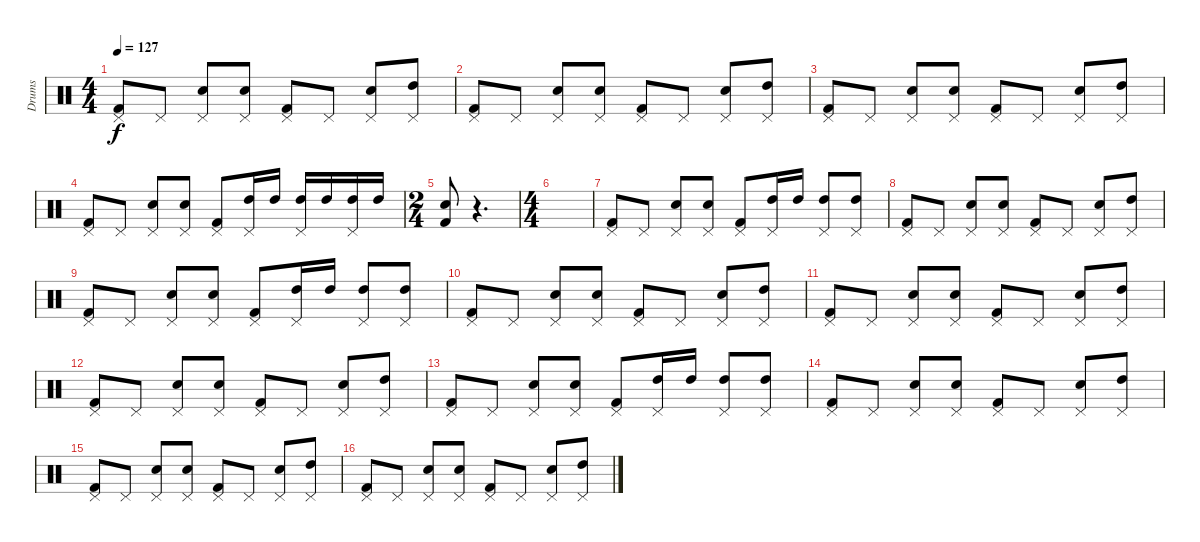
\track ("Drums" "Drums") {instrument percussion}
\staff {score}
\articulation defaults
\ts (4 4)
\tempo 127
\clef neutral
\ks c
("Pedal Hi-Hat (hit)" "Kick (hit) 2").8{dy f} "Pedal Hi-Hat (hit)".8 ("Pedal Hi-Hat (hit)" "Snare (hit) 2").8 ("Pedal Hi-Hat (hit)" "Snare (hit) 2").8 ("Pedal Hi-Hat (hit)" "Kick (hit) 2").8 "Pedal Hi-Hat (hit)".8 ("Pedal Hi-Hat (hit)" "Snare (hit) 2").8 ("Pedal Hi-Hat (hit)" "High Tom (hit)").8 |
("Pedal Hi-Hat (hit)" "Kick (hit) 2").8 "Pedal Hi-Hat (hit)".8 ("Pedal Hi-Hat (hit)" "Snare (hit) 2").8 ("Pedal Hi-Hat (hit)" "Snare (hit) 2").8 ("Pedal Hi-Hat (hit)" "Kick (hit) 2").8 "Pedal Hi-Hat (hit)".8 ("Pedal Hi-Hat (hit)" "Snare (hit) 2").8 ("Pedal Hi-Hat (hit)" "High Tom (hit)").8 |
("Pedal Hi-Hat (hit)" "Kick (hit) 2").8 "Pedal Hi-Hat (hit)".8 ("Pedal Hi-Hat (hit)" "Snare (hit) 2").8 ("Pedal Hi-Hat (hit)" "Snare (hit) 2").8 ("Pedal Hi-Hat (hit)" "Kick (hit) 2").8 "Pedal Hi-Hat (hit)".8 ("Pedal Hi-Hat (hit)" "Snare (hit) 2").8 ("Pedal Hi-Hat (hit)" "High Tom (hit)").8 |
("Pedal Hi-Hat (hit)" "Kick (hit) 2").8 "Pedal Hi-Hat (hit)".8 ("Pedal Hi-Hat (hit)" "Snare (hit) 2").8 ("Pedal Hi-Hat (hit)" "Snare (hit) 2").8 ("Pedal Hi-Hat (hit)" "Kick (hit) 2").8 ("Pedal Hi-Hat (hit)" "High Tom (hit)").16 "High Tom (hit)".16 ("Pedal Hi-Hat (hit)" "High Tom (hit)").16 "High Tom (hit)".16 ("Pedal Hi-Hat (hit)" "High Tom (hit)").16 "High Tom (hit)".16 |
\ts (2 4)
("Snare (hit) 2" "Kick (hit) 2").8 r.4{d} |
\ts (4 4)
|
("Pedal Hi-Hat (hit)" "Kick (hit) 2").8 "Pedal Hi-Hat (hit)".8 ("Pedal Hi-Hat (hit)" "Snare (hit) 2").8 ("Pedal Hi-Hat (hit)" "Snare (hit) 2").8 ("Pedal Hi-Hat (hit)" "Kick (hit) 2").8 ("Pedal Hi-Hat (hit)" "High Tom (hit)").16 "High Tom (hit)".16 ("Pedal Hi-Hat (hit)" "High Tom (hit)").8 ("Pedal Hi-Hat (hit)" "High Tom (hit)").8 |
("Pedal Hi-Hat (hit)" "Kick (hit) 2").8 "Pedal Hi-Hat (hit)".8 ("Pedal Hi-Hat (hit)" "Snare (hit) 2").8 ("Pedal Hi-Hat (hit)" "Snare (hit) 2").8 ("Pedal Hi-Hat (hit)" "Kick (hit) 2").8 "Pedal Hi-Hat (hit)".8 ("Pedal Hi-Hat (hit)" "Snare (hit) 2").8 ("Pedal Hi-Hat (hit)" "High Tom (hit)").8 |
("Pedal Hi-Hat (hit)" "Kick (hit) 2").8 "Pedal Hi-Hat (hit)".8 ("Pedal Hi-Hat (hit)" "Snare (hit) 2").8 ("Pedal Hi-Hat (hit)" "Snare (hit) 2").8 ("Pedal Hi-Hat (hit)" "Kick (hit) 2").8 ("Pedal Hi-Hat (hit)" "High Tom (hit)").16 "High Tom (hit)".16 ("Pedal Hi-Hat (hit)" "High Tom (hit)").8 ("Pedal Hi-Hat (hit)" "High Tom (hit)").8 |
("Pedal Hi-Hat (hit)" "Kick (hit) 2").8 "Pedal Hi-Hat (hit)".8 ("Pedal Hi-Hat (hit)" "Snare (hit) 2").8 ("Pedal Hi-Hat (hit)" "Snare (hit) 2").8 ("Pedal Hi-Hat (hit)" "Kick (hit) 2").8 "Pedal Hi-Hat (hit)".8 ("Pedal Hi-Hat (hit)" "Snare (hit) 2").8 ("Pedal Hi-Hat (hit)" "High Tom (hit)").8 |
("Pedal Hi-Hat (hit)" "Kick (hit) 2").8 "Pedal Hi-Hat (hit)".8 ("Pedal Hi-Hat (hit)" "Snare (hit) 2").8 ("Pedal Hi-Hat (hit)" "Snare (hit) 2").8 ("Pedal Hi-Hat (hit)" "Kick (hit) 2").8 "Pedal Hi-Hat (hit)".8 ("Pedal Hi-Hat (hit)" "Snare (hit) 2").8 ("Pedal Hi-Hat (hit)" "High Tom (hit)").8 |
("Pedal Hi-Hat (hit)" "Kick (hit) 2").8 "Pedal Hi-Hat (hit)".8 ("Pedal Hi-Hat (hit)" "Snare (hit) 2").8 ("Pedal Hi-Hat (hit)" "Snare (hit) 2").8 ("Pedal Hi-Hat (hit)" "Kick (hit) 2").8 "Pedal Hi-Hat (hit)".8 ("Pedal Hi-Hat (hit)" "Snare (hit) 2").8 ("Pedal Hi-Hat (hit)" "High Tom (hit)").8 |
("Pedal Hi-Hat (hit)" "Kick (hit) 2").8 "Pedal Hi-Hat (hit)".8 ("Pedal Hi-Hat (hit)" "Snare (hit) 2").8 ("Pedal Hi-Hat (hit)" "Snare (hit) 2").8 ("Pedal Hi-Hat (hit)" "Kick (hit) 2").8 ("Pedal Hi-Hat (hit)" "High Tom (hit)").16 "High Tom (hit)".16 ("Pedal Hi-Hat (hit)" "High Tom (hit)").8 ("Pedal Hi-Hat (hit)" "High Tom (hit)").8 |
("Pedal Hi-Hat (hit)" "Kick (hit) 2").8 "Pedal Hi-Hat (hit)".8 ("Pedal Hi-Hat (hit)" "Snare (hit) 2").8 ("Pedal Hi-Hat (hit)" "Snare (hit) 2").8 ("Pedal Hi-Hat (hit)" "Kick (hit) 2").8 "Pedal Hi-Hat (hit)".8 ("Pedal Hi-Hat (hit)" "Snare (hit) 2").8 ("Pedal Hi-Hat (hit)" "High Tom (hit)").8 |
("Pedal Hi-Hat (hit)" "Kick (hit) 2").8 "Pedal Hi-Hat (hit)".8 ("Pedal Hi-Hat (hit)" "Snare (hit) 2").8 ("Pedal Hi-Hat (hit)" "Snare (hit) 2").8 ("Pedal Hi-Hat (hit)" "Kick (hit) 2").8 "Pedal Hi-Hat (hit)".8 ("Pedal Hi-Hat (hit)" "Snare (hit) 2").8 ("Pedal Hi-Hat (hit)" "High Tom (hit)").8 |
("Pedal Hi-Hat (hit)" "Kick (hit) 2").8 "Pedal Hi-Hat (hit)".8 ("Pedal Hi-Hat (hit)" "Snare (hit) 2").8 ("Pedal Hi-Hat (hit)" "Snare (hit) 2").8 ("Pedal Hi-Hat (hit)" "Kick (hit) 2").8 "Pedal Hi-Hat (hit)".8 ("Pedal Hi-Hat (hit)" "Snare (hit) 2").8 ("Pedal Hi-Hat (hit)" "High Tom (hit)").8
